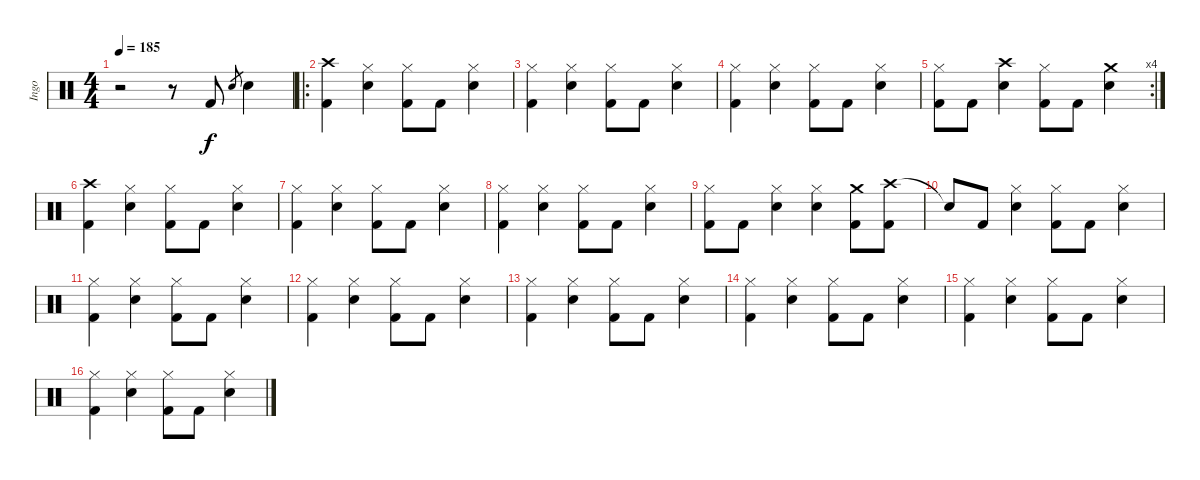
\track ("Ingo" "Ingo") {instrument percussion}
\staff {score}
\articulation defaults
\ts (4 4)
\tempo 185
\clef neutral
\ks c
r.2{dy f} r.8 "Kick (hit) 2".8 "Electric Snare (hit)".8{gr} "Electric Snare (hit)".4 |
\ro
("Crash high (hit)" "Kick (hit) 2").4 ("Hi-Hat (closed)" "Electric Snare (hit)").4 ("Hi-Hat (closed)" "Kick (hit) 2").8 "Kick (hit) 2".8 ("Hi-Hat (closed)" "Electric Snare (hit)").4 |
("Hi-Hat (closed)" "Kick (hit) 2").4 ("Hi-Hat (closed)" "Electric Snare (hit)").4 ("Hi-Hat (closed)" "Kick (hit) 2").8 "Kick (hit) 2".8 ("Hi-Hat (closed)" "Electric Snare (hit)").4 |
("Hi-Hat (closed)" "Kick (hit) 2").4 ("Hi-Hat (closed)" "Electric Snare (hit)").4 ("Hi-Hat (closed)" "Kick (hit) 2").8 "Kick (hit) 2".8 ("Hi-Hat (closed)" "Electric Snare (hit)").4 |
\rc 4
("Hi-Hat (closed)" "Kick (hit) 2").8 "Kick (hit) 2".8 ("Crash high (hit)" "Electric Snare (hit)").4 ("Hi-Hat (closed)" "Kick (hit) 2").8 "Kick (hit) 2".8 ("Crash medium (hit)" "Electric Snare (hit)").4 |
("Crash high (hit)" "Kick (hit) 2").4 ("Hi-Hat (closed)" "Electric Snare (hit)").4 ("Hi-Hat (closed)" "Kick (hit) 2").8 "Kick (hit) 2".8 ("Hi-Hat (closed)" "Electric Snare (hit)").4 |
("Hi-Hat (closed)" "Kick (hit) 2").4 ("Hi-Hat (closed)" "Electric Snare (hit)").4 ("Hi-Hat (closed)" "Kick (hit) 2").8 "Kick (hit) 2".8 ("Hi-Hat (closed)" "Electric Snare (hit)").4 |
("Hi-Hat (closed)" "Kick (hit) 2").4 ("Hi-Hat (closed)" "Electric Snare (hit)").4 ("Hi-Hat (closed)" "Kick (hit) 2").8 "Kick (hit) 2".8 ("Hi-Hat (closed)" "Electric Snare (hit)").4 |
("Hi-Hat (closed)" "Kick (hit) 2").8 "Kick (hit) 2".8 ("Hi-Hat (closed)" "Electric Snare (hit)").4 ("Hi-Hat (closed)" "Electric Snare (hit)").4 ("Crash medium (hit)" "Kick (hit) 2").8 ("Crash high (hit)" "Kick (hit) 2").8 |
"Snare (hit)"{t}.8 "Kick (hit) 2".8 ("Hi-Hat (closed)" "Electric Snare (hit)").4 ("Hi-Hat (closed)" "Kick (hit) 2").8 "Kick (hit) 2".8 ("Hi-Hat (closed)" "Electric Snare (hit)").4 |
("Hi-Hat (closed)" "Kick (hit) 2").4 ("Hi-Hat (closed)" "Electric Snare (hit)").4 ("Hi-Hat (closed)" "Kick (hit) 2").8 "Kick (hit) 2".8 ("Hi-Hat (closed)" "Electric Snare (hit)").4 |
("Hi-Hat (closed)" "Kick (hit) 2").4 ("Hi-Hat (closed)" "Electric Snare (hit)").4 ("Hi-Hat (closed)" "Kick (hit) 2").8 "Kick (hit) 2".8 ("Hi-Hat (closed)" "Electric Snare (hit)").4 |
("Hi-Hat (closed)" "Kick (hit) 2").4 ("Hi-Hat (closed)" "Electric Snare (hit)").4 ("Hi-Hat (closed)" "Kick (hit) 2").8 "Kick (hit) 2".8 ("Hi-Hat (closed)" "Electric Snare (hit)").4 |
("Hi-Hat (closed)" "Kick (hit) 2").4 ("Hi-Hat (closed)" "Electric Snare (hit)").4 ("Hi-Hat (closed)" "Kick (hit) 2").8 "Kick (hit) 2".8 ("Hi-Hat (closed)" "Electric Snare (hit)").4 |
("Hi-Hat (closed)" "Kick (hit) 2").4 ("Hi-Hat (closed)" "Electric Snare (hit)").4 ("Hi-Hat (closed)" "Kick (hit) 2").8 "Kick (hit) 2".8 ("Hi-Hat (closed)" "Electric Snare (hit)").4 |
("Hi-Hat (closed)" "Kick (hit) 2").4 ("Hi-Hat (closed)" "Electric Snare (hit)").4 ("Hi-Hat (closed)" "Kick (hit) 2").8 "Kick (hit) 2".8 ("Hi-Hat (closed)" "Electric Snare (hit)").4
